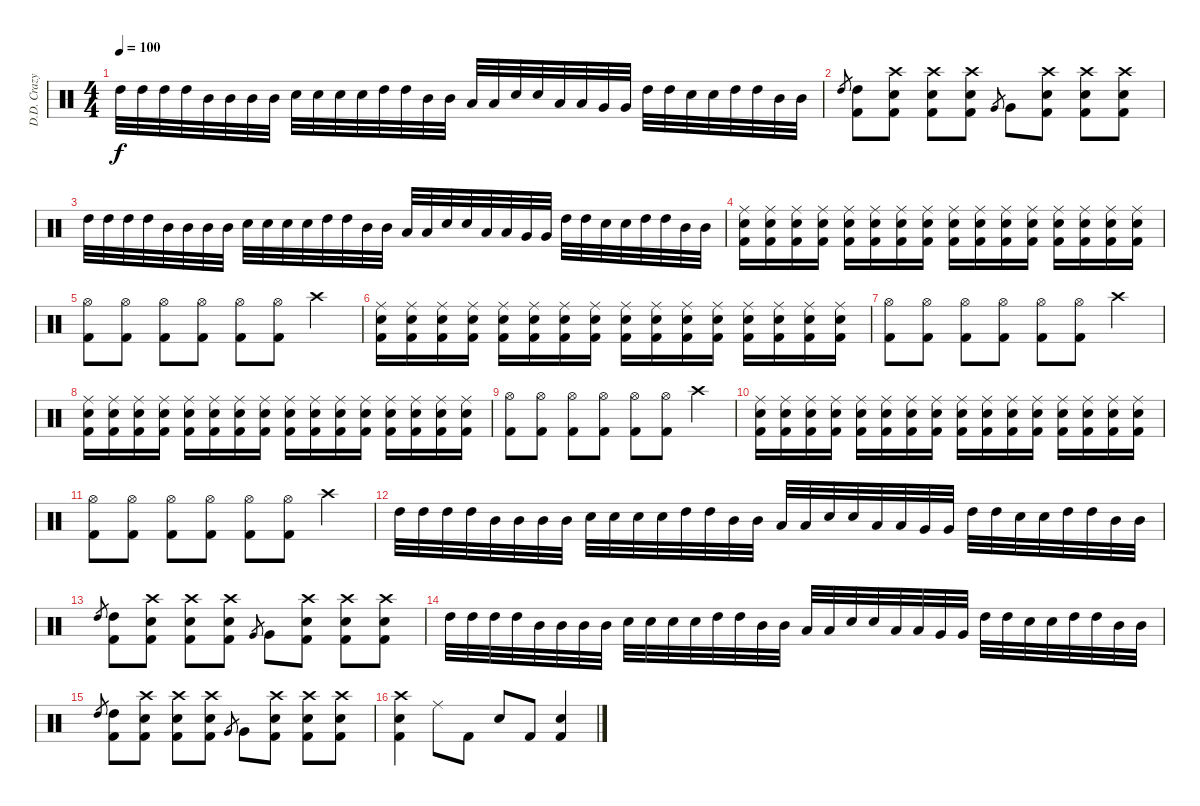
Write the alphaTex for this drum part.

\track ("D.D. Crazy " "D.D. Crazy") {instrument percussion}
\staff {score}
\articulation defaults
\ts (4 4)
\tempo 100
\clef neutral
\ks c "High Tom (hit)".32{dy f} "High Tom (hit)".32 "High Tom (hit)".32 "High Tom (hit)".32 "Mid Tom (hit)".32 "Mid Tom (hit)".32 "Mid Tom (hit)".32 "Mid Tom (hit)".32 "Snare (hit) 2".32 "Snare (hit) 2".32 "Snare (hit) 2".32 "Snare (hit) 2".32 "High Tom (hit)".32 "High Tom (hit)".32 "Mid Tom (hit)".32 "Mid Tom (hit)".32 "Low Tom (hit)".32 "Low Tom (hit)".32 "Snare (hit) 2".32 "Snare (hit) 2".32 "Low Tom (hit)".32 "Low Tom (hit)".32 "Very Low Tom (hit)".32 "Very Low Tom (hit)".32 "High Tom (hit)".32 "High Tom (hit)".32 "Snare (hit) 2".32 "Snare (hit) 2".32 "High Tom (hit)".32 "High Tom (hit)".32 "Mid Tom (hit)".32 "Mid Tom (hit)".32
|
"High Tom (hit)".8{gr} ("High Tom (hit)" "Kick (hit) 2").8 ("Crash high (hit)" "Snare (hit) 2" "Kick (hit) 2").8 ("Crash high (hit)" "Snare (hit) 2" "Kick (hit) 2").8 ("Crash high (hit)" "Snare (hit) 2" "Kick (hit) 2").8 "Very Low Tom (hit)".8{gr} "Very Low Tom (hit)".8 ("Crash high (hit)" "Snare (hit) 2" "Kick (hit) 2").8 ("Crash high (hit)" "Snare (hit) 2" "Kick (hit) 2").8 ("Crash high (hit)" "Snare (hit) 2" "Kick (hit) 2").8 |
"High Tom (hit)".32 "High Tom (hit)".32 "High Tom (hit)".32 "High Tom (hit)".32 "Mid Tom (hit)".32 "Mid Tom (hit)".32 "Mid Tom (hit)".32 "Mid Tom (hit)".32 "Snare (hit) 2".32 "Snare (hit) 2".32 "Snare (hit) 2".32 "Snare (hit) 2".32 "High Tom (hit)".32 "High Tom (hit)".32 "Mid Tom (hit)".32 "Mid Tom (hit)".32 "Low Tom (hit)".32 "Low Tom (hit)".32 "Snare (hit) 2".32 "Snare (hit) 2".32 "Low Tom (hit)".32 "Low Tom (hit)".32 "Very Low Tom (hit)".32 "Very Low Tom (hit)".32 "High Tom (hit)".32 "High Tom (hit)".32 "Snare (hit) 2".32 "Snare (hit) 2".32 "High Tom (hit)".32 "High Tom (hit)".32 "Mid Tom (hit)".32 "Mid Tom (hit)".32 |
("Ride (middle)" "Snare (hit) 2" "Kick (hit) 2").16 ("Ride (middle)" "Snare (hit) 2" "Kick (hit) 2").16 ("Ride (middle)" "Snare (hit) 2" "Kick (hit) 2").16 ("Ride (middle)" "Snare (hit) 2" "Kick (hit) 2").16 ("Ride (middle)" "Snare (hit) 2" "Kick (hit) 2").16 ("Ride (middle)" "Snare (hit) 2" "Kick (hit) 2").16 ("Ride (middle)" "Snare (hit) 2" "Kick (hit) 2").16 ("Ride (middle)" "Snare (hit) 2" "Kick (hit) 2").16 ("Ride (middle)" "Snare (hit) 2" "Kick (hit) 2").16 ("Ride (middle)" "Snare (hit) 2" "Kick (hit) 2").16 ("Ride (middle)" "Snare (hit) 2" "Kick (hit) 2").16 ("Ride (middle)" "Snare (hit) 2" "Kick (hit) 2").16 ("Ride (middle)" "Snare (hit) 2" "Kick (hit) 2").16 ("Ride (middle)" "Snare (hit) 2" "Kick (hit) 2").16 ("Ride (middle)" "Snare (hit) 2" "Kick (hit) 2").16 ("Ride (middle)" "Snare (hit) 2" "Kick (hit) 2").16 |
("Hi-Hat (open)" "Kick (hit) 2").8 ("Hi-Hat (open)" "Kick (hit) 2").8 ("Hi-Hat (open)" "Kick (hit) 2").8 ("Hi-Hat (open)" "Kick (hit) 2").8 ("Hi-Hat (open)" "Kick (hit) 2").8 ("Hi-Hat (open)" "Kick (hit) 2").8 "Crash high (hit)".4 |
("Ride (middle)" "Snare (hit) 2" "Kick (hit) 2").16 ("Ride (middle)" "Snare (hit) 2" "Kick (hit) 2").16 ("Ride (middle)" "Snare (hit) 2" "Kick (hit) 2").16 ("Ride (middle)" "Snare (hit) 2" "Kick (hit) 2").16 ("Ride (middle)" "Snare (hit) 2" "Kick (hit) 2").16 ("Ride (middle)" "Snare (hit) 2" "Kick (hit) 2").16 ("Ride (middle)" "Snare (hit) 2" "Kick (hit) 2").16 ("Ride (middle)" "Snare (hit) 2" "Kick (hit) 2").16 ("Ride (middle)" "Snare (hit) 2" "Kick (hit) 2").16 ("Ride (middle)" "Snare (hit) 2" "Kick (hit) 2").16 ("Ride (middle)" "Snare (hit) 2" "Kick (hit) 2").16 ("Ride (middle)" "Snare (hit) 2" "Kick (hit) 2").16 ("Ride (middle)" "Snare (hit) 2" "Kick (hit) 2").16 ("Ride (middle)" "Snare (hit) 2" "Kick (hit) 2").16 ("Ride (middle)" "Snare (hit) 2" "Kick (hit) 2").16 ("Ride (middle)" "Snare (hit) 2" "Kick (hit) 2").16 |
("Hi-Hat (open)" "Kick (hit) 2").8 ("Hi-Hat (open)" "Kick (hit) 2").8 ("Hi-Hat (open)" "Kick (hit) 2").8 ("Hi-Hat (open)" "Kick (hit) 2").8 ("Hi-Hat (open)" "Kick (hit) 2").8 ("Hi-Hat (open)" "Kick (hit) 2").8 "Crash high (hit)".4 |
("Ride (middle)" "Snare (hit) 2" "Kick (hit) 2").16 ("Ride (middle)" "Snare (hit) 2" "Kick (hit) 2").16 ("Ride (middle)" "Snare (hit) 2" "Kick (hit) 2").16 ("Ride (middle)" "Snare (hit) 2" "Kick (hit) 2").16 ("Ride (middle)" "Snare (hit) 2" "Kick (hit) 2").16 ("Ride (middle)" "Snare (hit) 2" "Kick (hit) 2").16 ("Ride (middle)" "Snare (hit) 2" "Kick (hit) 2").16 ("Ride (middle)" "Snare (hit) 2" "Kick (hit) 2").16 ("Ride (middle)" "Snare (hit) 2" "Kick (hit) 2").16 ("Ride (middle)" "Snare (hit) 2" "Kick (hit) 2").16 ("Ride (middle)" "Snare (hit) 2" "Kick (hit) 2").16 ("Ride (middle)" "Snare (hit) 2" "Kick (hit) 2").16 ("Ride (middle)" "Snare (hit) 2" "Kick (hit) 2").16 ("Ride (middle)" "Snare (hit) 2" "Kick (hit) 2").16 ("Ride (middle)" "Snare (hit) 2" "Kick (hit) 2").16 ("Ride (middle)" "Snare (hit) 2" "Kick (hit) 2").16 |
("Hi-Hat (open)" "Kick (hit) 2").8 ("Hi-Hat (open)" "Kick (hit) 2").8 ("Hi-Hat (open)" "Kick (hit) 2").8 ("Hi-Hat (open)" "Kick (hit) 2").8 ("Hi-Hat (open)" "Kick (hit) 2").8 ("Hi-Hat (open)" "Kick (hit) 2").8 "Crash high (hit)".4 |
("Ride (middle)" "Snare (hit) 2" "Kick (hit) 2").16 ("Ride (middle)" "Snare (hit) 2" "Kick (hit) 2").16 ("Ride (middle)" "Snare (hit) 2" "Kick (hit) 2").16 ("Ride (middle)" "Snare (hit) 2" "Kick (hit) 2").16 ("Ride (middle)" "Snare (hit) 2" "Kick (hit) 2").16 ("Ride (middle)" "Snare (hit) 2" "Kick (hit) 2").16 ("Ride (middle)" "Snare (hit) 2" "Kick (hit) 2").16 ("Ride (middle)" "Snare (hit) 2" "Kick (hit) 2").16 ("Ride (middle)" "Snare (hit) 2" "Kick (hit) 2").16 ("Ride (middle)" "Snare (hit) 2" "Kick (hit) 2").16 ("Ride (middle)" "Snare (hit) 2" "Kick (hit) 2").16 ("Ride (middle)" "Snare (hit) 2" "Kick (hit) 2").16 ("Ride (middle)" "Snare (hit) 2" "Kick (hit) 2").16 ("Ride (middle)" "Snare (hit) 2" "Kick (hit) 2").16 ("Ride (middle)" "Snare (hit) 2" "Kick (hit) 2").16 ("Ride (middle)" "Snare (hit) 2" "Kick (hit) 2").16 |
("Hi-Hat (open)" "Kick (hit) 2").8 ("Hi-Hat (open)" "Kick (hit) 2").8 ("Hi-Hat (open)" "Kick (hit) 2").8 ("Hi-Hat (open)" "Kick (hit) 2").8 ("Hi-Hat (open)" "Kick (hit) 2").8 ("Hi-Hat (open)" "Kick (hit) 2").8 "Crash high (hit)".4 |
"High Tom (hit)".32 "High Tom (hit)".32 "High Tom (hit)".32 "High Tom (hit)".32 "Mid Tom (hit)".32 "Mid Tom (hit)".32 "Mid Tom (hit)".32 "Mid Tom (hit)".32 "Snare (hit) 2".32 "Snare (hit) 2".32 "Snare (hit) 2".32 "Snare (hit) 2".32 "High Tom (hit)".32 "High Tom (hit)".32 "Mid Tom (hit)".32 "Mid Tom (hit)".32 "Low Tom (hit)".32 "Low Tom (hit)".32 "Snare (hit) 2".32 "Snare (hit) 2".32 "Low Tom (hit)".32 "Low Tom (hit)".32 "Very Low Tom (hit)".32 "Very Low Tom (hit)".32 "High Tom (hit)".32 "High Tom (hit)".32 "Snare (hit) 2".32 "Snare (hit) 2".32 "High Tom (hit)".32 "High Tom (hit)".32 "Mid Tom (hit)".32 "Mid Tom (hit)".32 |
"High Tom (hit)".8{gr} ("High Tom (hit)" "Kick (hit) 2").8 ("Crash high (hit)" "Snare (hit) 2" "Kick (hit) 2").8 ("Crash high (hit)" "Snare (hit) 2" "Kick (hit) 2").8 ("Crash high (hit)" "Snare (hit) 2" "Kick (hit) 2").8 "Very Low Tom (hit)".8{gr} "Very Low Tom (hit)".8 ("Crash high (hit)" "Snare (hit) 2" "Kick (hit) 2").8 ("Crash high (hit)" "Snare (hit) 2" "Kick (hit) 2").8 ("Crash high (hit)" "Snare (hit) 2" "Kick (hit) 2").8 |
"High Tom (hit)".32 "High Tom (hit)".32 "High Tom (hit)".32 "High Tom (hit)".32 "Mid Tom (hit)".32 "Mid Tom (hit)".32 "Mid Tom (hit)".32 "Mid Tom (hit)".32 "Snare (hit) 2".32 "Snare (hit) 2".32 "Snare (hit) 2".32 "Snare (hit) 2".32 "High Tom (hit)".32 "High Tom (hit)".32 "Mid Tom (hit)".32 "Mid Tom (hit)".32 "Low Tom (hit)".32 "Low Tom (hit)".32 "Snare (hit) 2".32 "Snare (hit) 2".32 "Low Tom (hit)".32 "Low Tom (hit)".32 "Very Low Tom (hit)".32 "Very Low Tom (hit)".32 "High Tom (hit)".32 "High Tom (hit)".32 "Snare (hit) 2".32 "Snare (hit) 2".32 "High Tom (hit)".32 "High Tom (hit)".32 "Mid Tom (hit)".32 "Mid Tom (hit)".32 |
"High Tom (hit)".8{gr} ("High Tom (hit)" "Kick (hit) 2").8 ("Crash high (hit)" "Snare (hit) 2" "Kick (hit) 2").8 ("Crash high (hit)" "Snare (hit) 2" "Kick (hit) 2").8 ("Crash high (hit)" "Snare (hit) 2" "Kick (hit) 2").8 "Very Low Tom (hit)".8{gr} "Very Low Tom (hit)".8 ("Crash high (hit)" "Snare (hit) 2" "Kick (hit) 2").8 ("Crash high (hit)" "Snare (hit) 2" "Kick (hit) 2").8 ("Crash high (hit)" "Snare (hit) 2" "Kick (hit) 2").8 |
("Crash high (hit)" "Snare (hit) 2" "Kick (hit) 2").4 "Ride (middle)".8 "Kick (hit) 2".8 "Snare (hit) 2".8 "Kick (hit) 2".8 ("Snare (hit) 2" "Kick (hit) 2").4
